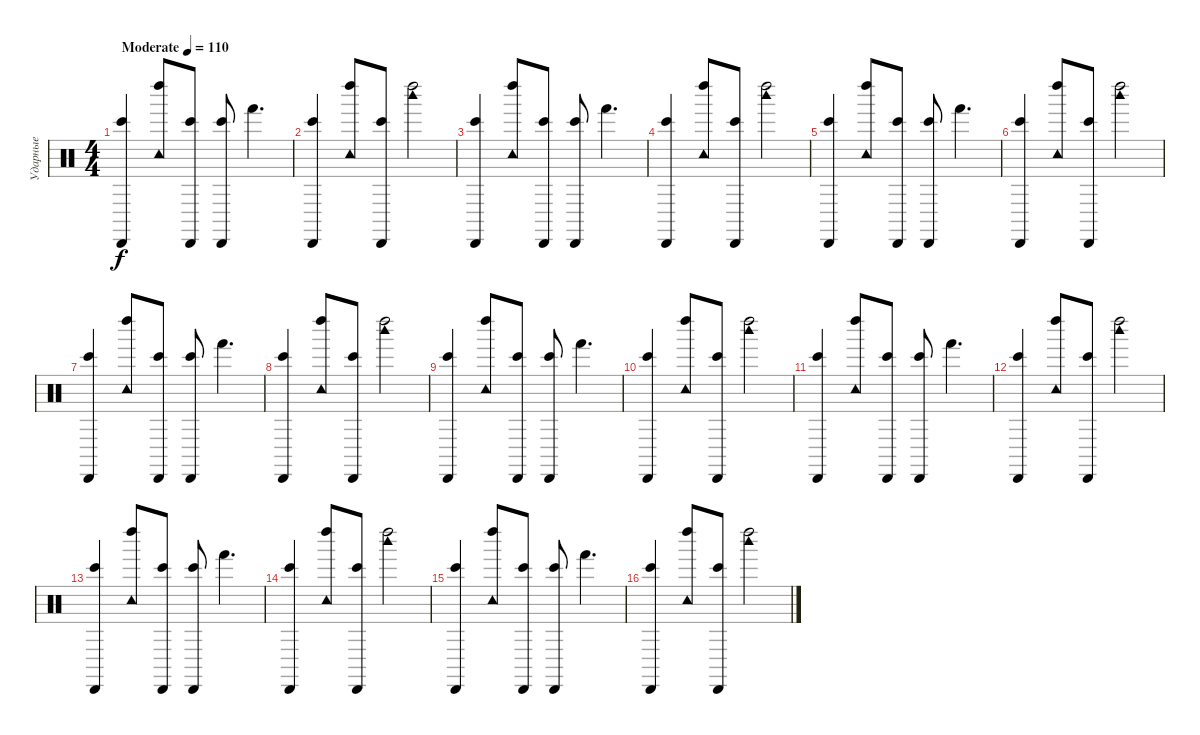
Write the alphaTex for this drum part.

\track ("Ударные" "Ударные") {instrument percussion}
\staff {score}
\articulation defaults
\ts (4 4)
\tempo (110 "Moderate")
\clef neutral
\ks c
("Bongo High (hit)" "Cabasa (hit)").4{dy f} ("Tambourine (hit)" "Left Maraca (hit)").8 ("Bongo High (hit)" "Cabasa (hit)").8 ("Bongo High (hit)" "Cabasa (hit)").8 "Hand (hit)".4{d} |
("Bongo High (hit)" "Cabasa (hit)").4 ("Tambourine (hit)" "Left Maraca (hit)").8 ("Bongo High (hit)" "Cabasa (hit)").8 ("Woodblock high (hit)" "Left Maraca (hit)").2 |
("Bongo High (hit)" "Cabasa (hit)").4 ("Tambourine (hit)" "Left Maraca (hit)").8 ("Bongo High (hit)" "Cabasa (hit)").8 ("Bongo High (hit)" "Cabasa (hit)").8 "Hand (hit)".4{d} |
("Bongo High (hit)" "Cabasa (hit)").4 ("Tambourine (hit)" "Left Maraca (hit)").8 ("Bongo High (hit)" "Cabasa (hit)").8 ("Woodblock high (hit)" "Left Maraca (hit)").2 |
("Bongo High (hit)" "Cabasa (hit)").4 ("Tambourine (hit)" "Left Maraca (hit)").8 ("Bongo High (hit)" "Cabasa (hit)").8 ("Bongo High (hit)" "Cabasa (hit)").8 "Hand (hit)".4{d} |
("Bongo High (hit)" "Cabasa (hit)").4 ("Tambourine (hit)" "Left Maraca (hit)").8 ("Bongo High (hit)" "Cabasa (hit)").8 ("Woodblock high (hit)" "Left Maraca (hit)").2 |
("Bongo High (hit)" "Cabasa (hit)").4 ("Tambourine (hit)" "Left Maraca (hit)").8 ("Bongo High (hit)" "Cabasa (hit)").8 ("Bongo High (hit)" "Cabasa (hit)").8 "Hand (hit)".4{d} |
("Bongo High (hit)" "Cabasa (hit)").4 ("Tambourine (hit)" "Left Maraca (hit)").8 ("Bongo High (hit)" "Cabasa (hit)").8 ("Woodblock high (hit)" "Left Maraca (hit)").2 |
("Bongo High (hit)" "Cabasa (hit)").4 ("Tambourine (hit)" "Left Maraca (hit)").8 ("Bongo High (hit)" "Cabasa (hit)").8 ("Bongo High (hit)" "Cabasa (hit)").8 "Hand (hit)".4{d} |
("Bongo High (hit)" "Cabasa (hit)").4 ("Tambourine (hit)" "Left Maraca (hit)").8 ("Bongo High (hit)" "Cabasa (hit)").8 ("Woodblock high (hit)" "Left Maraca (hit)").2 |
("Bongo High (hit)" "Cabasa (hit)").4 ("Tambourine (hit)" "Left Maraca (hit)").8 ("Bongo High (hit)" "Cabasa (hit)").8 ("Bongo High (hit)" "Cabasa (hit)").8 "Hand (hit)".4{d} |
("Bongo High (hit)" "Cabasa (hit)").4 ("Tambourine (hit)" "Left Maraca (hit)").8 ("Bongo High (hit)" "Cabasa (hit)").8 ("Woodblock high (hit)" "Left Maraca (hit)").2 |
("Bongo High (hit)" "Cabasa (hit)").4 ("Tambourine (hit)" "Left Maraca (hit)").8 ("Bongo High (hit)" "Cabasa (hit)").8 ("Bongo High (hit)" "Cabasa (hit)").8 "Hand (hit)".4{d} |
("Bongo High (hit)" "Cabasa (hit)").4 ("Tambourine (hit)" "Left Maraca (hit)").8 ("Bongo High (hit)" "Cabasa (hit)").8 ("Woodblock high (hit)" "Left Maraca (hit)").2 |
("Bongo High (hit)" "Cabasa (hit)").4 ("Tambourine (hit)" "Left Maraca (hit)").8 ("Bongo High (hit)" "Cabasa (hit)").8 ("Bongo High (hit)" "Cabasa (hit)").8 "Hand (hit)".4{d} |
("Bongo High (hit)" "Cabasa (hit)").4 ("Tambourine (hit)" "Left Maraca (hit)").8 ("Bongo High (hit)" "Cabasa (hit)").8 ("Woodblock high (hit)" "Left Maraca (hit)").2
